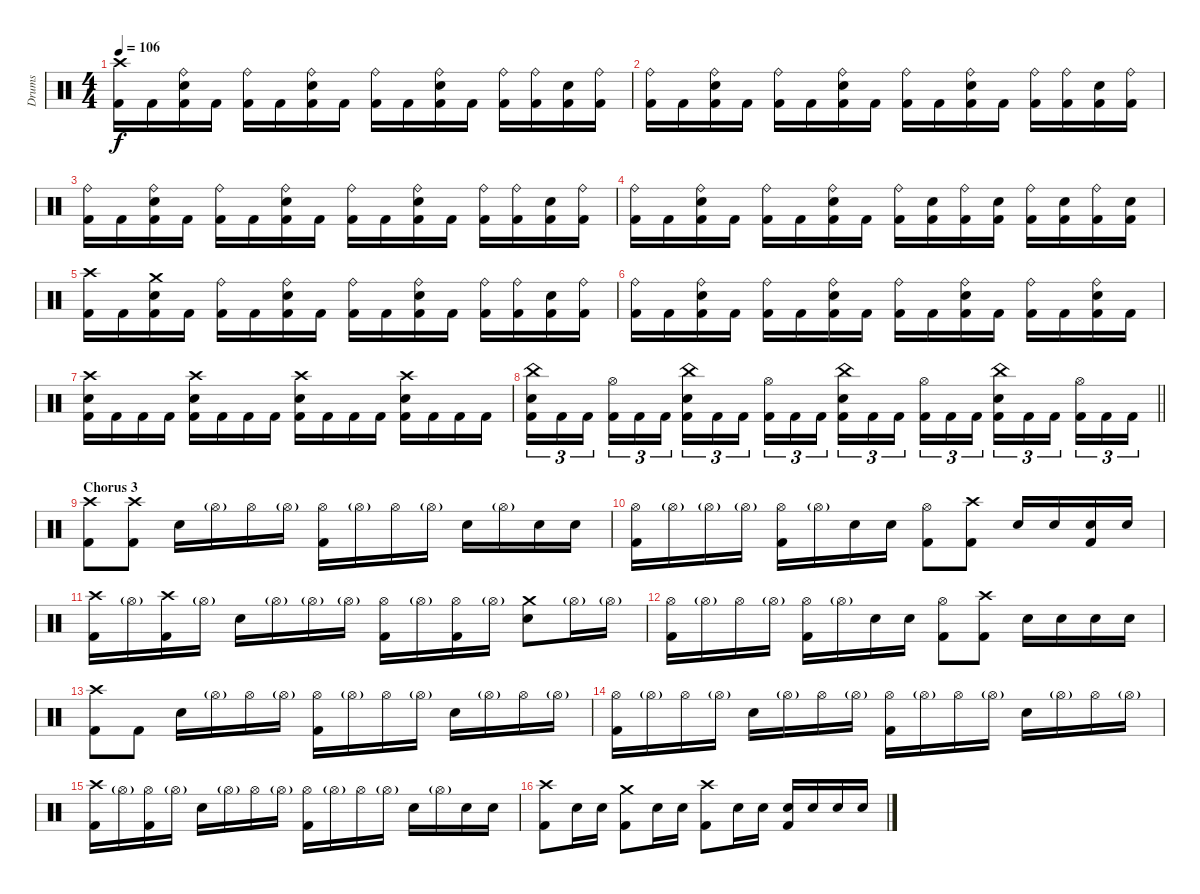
\track ("Drums" "Drums") {instrument percussion}
\staff {score}
\articulation defaults
\ts (4 4)
\tempo 106
\clef neutral
\ks c
("Crash high (hit)" "Kick (hit) 2").16{dy f} "Kick (hit) 2".16 ("Ride (bell)" "Electric Snare (hit)" "Kick (hit) 2").16 "Kick (hit) 2".16 ("Ride (bell)" "Kick (hit) 2").16 "Kick (hit) 2".16 ("Ride (bell)" "Electric Snare (hit)" "Kick (hit) 2").16 "Kick (hit) 2".16 ("Ride (bell)" "Kick (hit) 2").16 "Kick (hit) 2".16 ("Ride (bell)" "Electric Snare (hit)" "Kick (hit) 2").16 "Kick (hit) 2".16 ("Ride (bell)" "Kick (hit) 2").16 ("Ride (bell)" "Kick (hit) 2").16 ("Electric Snare (hit)" "Kick (hit) 2").16 ("Ride (bell)" "Kick (hit) 2").16 |
("Ride (bell)" "Kick (hit) 2").16 "Kick (hit) 2".16 ("Ride (bell)" "Electric Snare (hit)" "Kick (hit) 2").16 "Kick (hit) 2".16 ("Ride (bell)" "Kick (hit) 2").16 "Kick (hit) 2".16 ("Ride (bell)" "Electric Snare (hit)" "Kick (hit) 2").16 "Kick (hit) 2".16 ("Ride (bell)" "Kick (hit) 2").16 "Kick (hit) 2".16 ("Ride (bell)" "Electric Snare (hit)" "Kick (hit) 2").16 "Kick (hit) 2".16 ("Ride (bell)" "Kick (hit) 2").16 ("Ride (bell)" "Kick (hit) 2").16 ("Electric Snare (hit)" "Kick (hit) 2").16 ("Ride (bell)" "Kick (hit) 2").16 |
("Ride (bell)" "Kick (hit) 2").16 "Kick (hit) 2".16 ("Ride (bell)" "Electric Snare (hit)" "Kick (hit) 2").16 "Kick (hit) 2".16 ("Ride (bell)" "Kick (hit) 2").16 "Kick (hit) 2".16 ("Ride (bell)" "Electric Snare (hit)" "Kick (hit) 2").16 "Kick (hit) 2".16 ("Ride (bell)" "Kick (hit) 2").16 "Kick (hit) 2".16 ("Ride (bell)" "Electric Snare (hit)" "Kick (hit) 2").16 "Kick (hit) 2".16 ("Ride (bell)" "Kick (hit) 2").16 ("Ride (bell)" "Kick (hit) 2").16 ("Electric Snare (hit)" "Kick (hit) 2").16 ("Ride (bell)" "Kick (hit) 2").16 |
("Ride (bell)" "Kick (hit) 2").16 "Kick (hit) 2".16 ("Ride (bell)" "Electric Snare (hit)" "Kick (hit) 2").16 "Kick (hit) 2".16 ("Ride (bell)" "Kick (hit) 2").16 "Kick (hit) 2".16 ("Ride (bell)" "Electric Snare (hit)" "Kick (hit) 2").16 "Kick (hit) 2".16 ("Ride (bell)" "Kick (hit) 2").16 ("Electric Snare (hit)" "Kick (hit) 2").16 ("Ride (bell)" "Kick (hit) 2").16 ("Electric Snare (hit)" "Kick (hit) 2").16 ("Ride (bell)" "Kick (hit) 2").16 ("Electric Snare (hit)" "Kick (hit) 2").16 ("Ride (bell)" "Kick (hit) 2").16 ("Electric Snare (hit)" "Kick (hit) 2").16 |
("Crash high (hit)" "Kick (hit) 2").16 "Kick (hit) 2".16 ("Crash medium (hit)" "Electric Snare (hit)" "Kick (hit) 2").16 "Kick (hit) 2".16 ("Ride (bell)" "Kick (hit) 2").16 "Kick (hit) 2".16 ("Ride (bell)" "Electric Snare (hit)" "Kick (hit) 2").16 "Kick (hit) 2".16 ("Ride (bell)" "Kick (hit) 2").16 "Kick (hit) 2".16 ("Ride (bell)" "Electric Snare (hit)" "Kick (hit) 2").16 "Kick (hit) 2".16 ("Ride (bell)" "Kick (hit) 2").16 ("Ride (bell)" "Kick (hit) 2").16 ("Electric Snare (hit)" "Kick (hit) 2").16 ("Ride (bell)" "Kick (hit) 2").16 |
("Ride (bell)" "Kick (hit) 2").16 "Kick (hit) 2".16 ("Ride (bell)" "Electric Snare (hit)" "Kick (hit) 2").16 "Kick (hit) 2".16 ("Ride (bell)" "Kick (hit) 2").16 "Kick (hit) 2".16 ("Ride (bell)" "Electric Snare (hit)" "Kick (hit) 2").16 "Kick (hit) 2".16 ("Ride (bell)" "Kick (hit) 2").16 "Kick (hit) 2".16 ("Ride (bell)" "Electric Snare (hit)" "Kick (hit) 2").16 "Kick (hit) 2".16 ("Ride (bell)" "Kick (hit) 2").16 "Kick (hit) 2".16 ("Ride (bell)" "Electric Snare (hit)" "Kick (hit) 2").16 "Kick (hit) 2".16 |
("Crash high (hit)" "Electric Snare (hit)" "Kick (hit) 2").16 "Kick (hit) 2".16 "Kick (hit) 2".16 "Kick (hit) 2".16 ("Crash high (hit)" "Electric Snare (hit)" "Kick (hit) 2").16 "Kick (hit) 2".16 "Kick (hit) 2".16 "Kick (hit) 2".16 ("Crash high (hit)" "Electric Snare (hit)" "Kick (hit) 2").16 "Kick (hit) 2".16 "Kick (hit) 2".16 "Kick (hit) 2".16 ("Crash high (hit)" "Electric Snare (hit)" "Kick (hit) 2").16 "Kick (hit) 2".16 "Kick (hit) 2".16 "Kick (hit) 2".16 |
\barLineRight lightlight
("China (hit)" "Electric Snare (hit)" "Kick (hit) 2").16{tu (3 2)} "Kick (hit) 2".16{tu (3 2)} "Kick (hit) 2".16{tu (3 2) beam splitsecondary} ("Hi-Hat (open)" "Kick (hit) 2").16{tu (3 2)} "Kick (hit) 2".16{tu (3 2)} "Kick (hit) 2".16{tu (3 2)} ("China (hit)" "Electric Snare (hit)" "Kick (hit) 2").16{tu (3 2)} "Kick (hit) 2".16{tu (3 2)} "Kick (hit) 2".16{tu (3 2) beam splitsecondary} ("Hi-Hat (open)" "Kick (hit) 2").16{tu (3 2)} "Kick (hit) 2".16{tu (3 2)} "Kick (hit) 2".16{tu (3 2)} ("China (hit)" "Electric Snare (hit)" "Kick (hit) 2").16{tu (3 2)} "Kick (hit) 2".16{tu (3 2)} "Kick (hit) 2".16{tu (3 2) beam splitsecondary} ("Hi-Hat (open)" "Kick (hit) 2").16{tu (3 2)} "Kick (hit) 2".16{tu (3 2)} "Kick (hit) 2".16{tu (3 2)} ("China (hit)" "Electric Snare (hit)" "Kick (hit) 2").16{tu (3 2)} "Kick (hit) 2".16{tu (3 2)} "Kick (hit) 2".16{tu (3 2) beam splitsecondary} ("Hi-Hat (open)" "Kick (hit) 2").16{tu (3 2)} "Kick (hit) 2".16{tu (3 2)} "Kick (hit) 2".16{tu (3 2)} |
\section ("" "Chorus 3")
("Crash high (hit)" "Kick (hit) 2").8 ("Crash high (hit)" "Kick (hit) 2").8 "Electric Snare (hit)".16 "Hi-Hat (open)"{g}.16 "Hi-Hat (open)".16 "Hi-Hat (open)"{g}.16 ("Hi-Hat (open)" "Kick (hit) 2").16 "Hi-Hat (open)"{g}.16 "Hi-Hat (open)".16 "Hi-Hat (open)"{g}.16 "Electric Snare (hit)".16 "Hi-Hat (open)"{g}.16 "Electric Snare (hit)".16 "Electric Snare (hit)".16 |
("Hi-Hat (open)" "Kick (hit) 2").16 "Hi-Hat (open)"{g}.16 "Hi-Hat (open)"{g}.16 "Hi-Hat (open)"{g}.16 ("Hi-Hat (open)" "Kick (hit) 2").16 "Hi-Hat (open)"{g}.16 "Electric Snare (hit)".16 "Electric Snare (hit)".16 ("Hi-Hat (open)" "Kick (hit) 2").8 ("Crash high (hit)" "Kick (hit) 2").8 "Electric Snare (hit)".16 "Electric Snare (hit)".16 ("Electric Snare (hit)" "Kick (hit) 2").16 "Electric Snare (hit)".16 |
("Crash high (hit)" "Kick (hit) 2").16 "Hi-Hat (open)"{g}.16 ("Crash high (hit)" "Kick (hit) 2").16 "Hi-Hat (open)"{g}.16 "Electric Snare (hit)".16 "Hi-Hat (open)"{g}.16 "Hi-Hat (open)"{g}.16 "Hi-Hat (open)"{g}.16 ("Hi-Hat (open)" "Kick (hit) 2").16 "Hi-Hat (open)"{g}.16 ("Hi-Hat (open)" "Kick (hit) 2").16 "Hi-Hat (open)"{g}.16 ("Crash medium (hit)" "Electric Snare (hit)").8 "Hi-Hat (open)"{g}.16 "Hi-Hat (open)"{g}.16 |
("Hi-Hat (open)" "Kick (hit) 2").16 "Hi-Hat (open)"{g}.16 "Hi-Hat (open)".16 "Hi-Hat (open)"{g}.16 ("Hi-Hat (open)" "Kick (hit) 2").16 "Hi-Hat (open)"{g}.16 "Electric Snare (hit)".16 "Electric Snare (hit)".16 ("Hi-Hat (open)" "Kick (hit) 2").8 ("Crash high (hit)" "Kick (hit) 2").8 "Electric Snare (hit)".16 "Electric Snare (hit)".16 "Electric Snare (hit)".16 "Electric Snare (hit)".16 |
("Crash high (hit)" "Kick (hit) 2").8 "Kick (hit) 2".8 "Electric Snare (hit)".16 "Hi-Hat (open)"{g}.16 "Hi-Hat (open)".16 "Hi-Hat (open)"{g}.16 ("Hi-Hat (open)" "Kick (hit) 2").16 "Hi-Hat (open)"{g}.16 "Hi-Hat (open)".16 "Hi-Hat (open)"{g}.16 "Electric Snare (hit)".16 "Hi-Hat (open)"{g}.16 "Hi-Hat (open)".16 "Hi-Hat (open)"{g}.16 |
("Hi-Hat (open)" "Kick (hit) 2").16 "Hi-Hat (open)"{g}.16 "Hi-Hat (open)".16 "Hi-Hat (open)"{g}.16 "Electric Snare (hit)".16 "Hi-Hat (open)"{g}.16 "Hi-Hat (open)".16 "Hi-Hat (open)"{g}.16 ("Hi-Hat (open)" "Kick (hit) 2").16 "Hi-Hat (open)"{g}.16 "Hi-Hat (open)".16 "Hi-Hat (open)"{g}.16 "Electric Snare (hit)".16 "Hi-Hat (open)"{g}.16 "Hi-Hat (open)".16 "Hi-Hat (open)"{g}.16 |
("Crash high (hit)" "Kick (hit) 2").16 "Hi-Hat (open)"{g}.16 ("Hi-Hat (open)" "Kick (hit) 2").16 "Hi-Hat (open)"{g}.16 "Electric Snare (hit)".16 "Hi-Hat (open)"{g}.16 "Hi-Hat (open)".16 "Hi-Hat (open)"{g}.16 ("Hi-Hat (open)" "Kick (hit) 2").16 "Hi-Hat (open)"{g}.16 "Hi-Hat (open)".16 "Hi-Hat (open)"{g}.16 "Electric Snare (hit)".16 "Hi-Hat (open)"{g}.16 "Electric Snare (hit)".16 "Electric Snare (hit)".16 |
("Crash high (hit)" "Kick (hit) 2").8 "Electric Snare (hit)".16 "Electric Snare (hit)".16 ("Crash medium (hit)" "Kick (hit) 2").8 "Electric Snare (hit)".16 "Electric Snare (hit)".16 ("Crash high (hit)" "Kick (hit) 2").8 "Electric Snare (hit)".16 "Electric Snare (hit)".16 ("Electric Snare (hit)" "Kick (hit) 2").16 "Electric Snare (hit)".16 "Electric Snare (hit)".16 "Electric Snare (hit)".16
